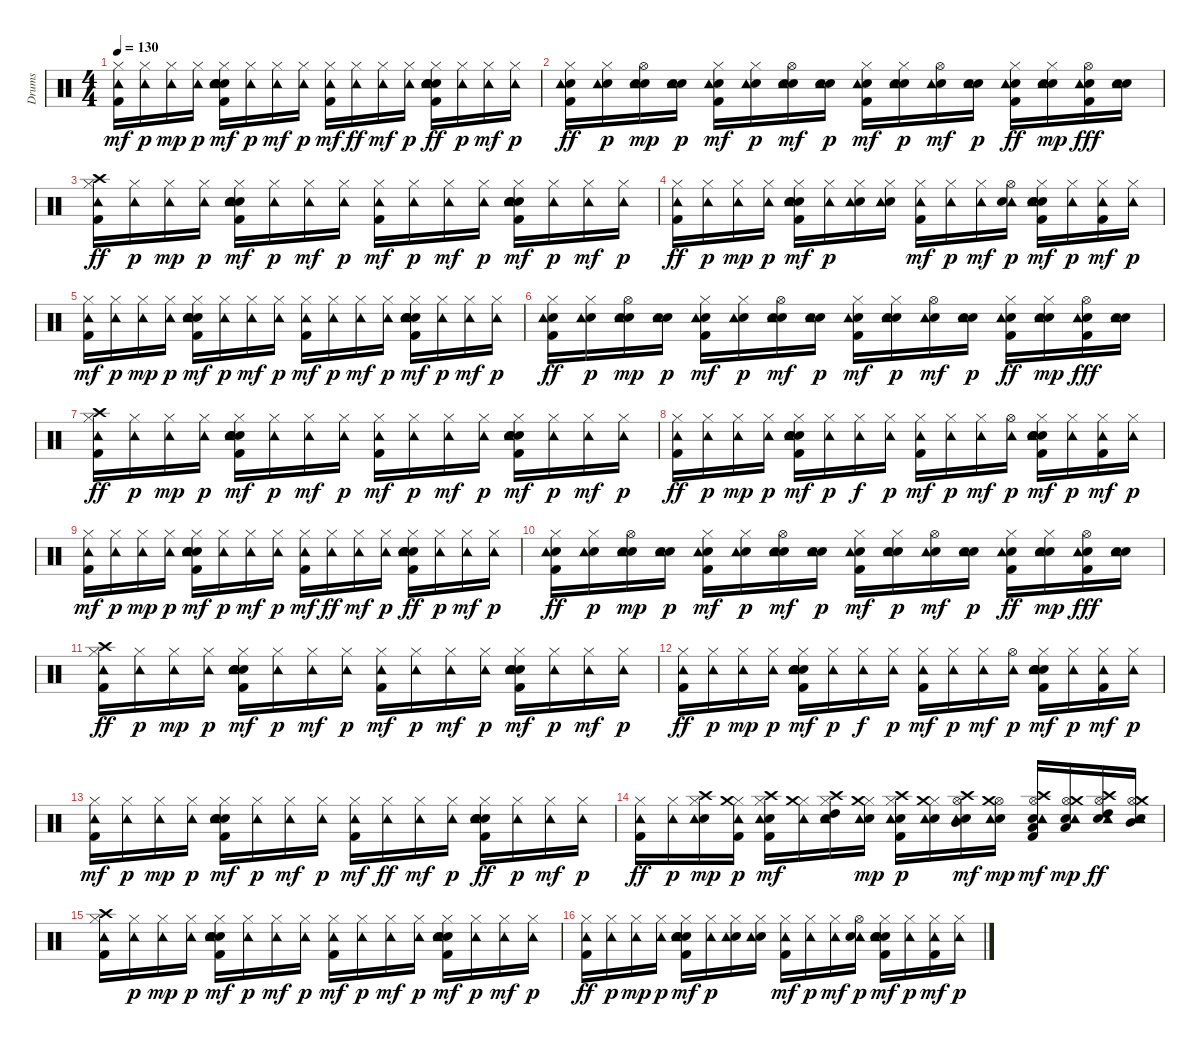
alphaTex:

\track ("Drums  " "Drums  ") {instrument percussion}
\staff {score}
\articulation defaults
\ts (4 4)
\tempo 130
\clef neutral
\ks c
("Kick (hit) 2" "Hi-Hat (closed)" "Tambourine (hit)").16{dy mf} ("Hi-Hat (closed)" "Tambourine (hit)").16{dy p} ("Hi-Hat (closed)" "Tambourine (hit)").16{dy mp} ("Hi-Hat (closed)" "Tambourine (hit)").16{dy p} ("Kick (hit) 2" "Snare (hit) 2" "Snare (hit) 2" "Electric Snare (hit)" "Hi-Hat (closed)" "Tambourine (hit)").16{dy mf} ("Hi-Hat (closed)" "Tambourine (hit)").16{dy p} ("Hi-Hat (closed)" "Tambourine (hit)").16{dy mf} ("Hi-Hat (closed)" "Tambourine (hit)").16{dy p} ("Kick (hit) 2" "Hi-Hat (closed)" "Tambourine (hit)").16{dy mf} ("Hi-Hat (closed)" "Tambourine (hit)").16{dy ff} ("Hi-Hat (closed)" "Tambourine (hit)").16{dy mf} ("Hi-Hat (closed)" "Tambourine (hit)").16{dy p} ("Kick (hit) 2" "Snare (hit) 2" "Snare (hit) 2" "Electric Snare (hit)" "Hi-Hat (closed)" "Tambourine (hit)").16{dy ff} ("Hi-Hat (closed)" "Tambourine (hit)").16{dy p} ("Hi-Hat (closed)" "Tambourine (hit)").16{dy mf} ("Hi-Hat (closed)" "Tambourine (hit)").16{dy p} |
("Kick (hit) 2" "Snare (hit) 2" "Hi-Hat (closed)" "Tambourine (hit)").16{dy ff} ("Snare (hit) 2" "Hi-Hat (closed)" "Tambourine (hit)").16{dy p} ("Snare (hit) 2" "Electric Snare (hit)" "Hi-Hat (open)" "Tambourine (hit)").16{dy mp} ("Snare (hit) 2" "Electric Snare (hit)" "Tambourine (hit)").16{dy p} ("Kick (hit) 2" "Snare (hit) 2" "Hi-Hat (closed)" "Tambourine (hit)").16{dy mf} ("Snare (hit) 2" "Hi-Hat (closed)" "Tambourine (hit)").16{dy p} ("Snare (hit) 2" "Electric Snare (hit)" "Hi-Hat (open)" "Tambourine (hit)").16{dy mf} ("Snare (hit) 2" "Electric Snare (hit)" "Tambourine (hit)").16{dy p} ("Kick (hit) 2" "Snare (hit) 2" "Hi-Hat (closed)" "Tambourine (hit)").16{dy mf} ("Snare (hit) 2" "Electric Snare (hit)" "Hi-Hat (closed)" "Tambourine (hit)").16{dy p} ("Snare (hit) 2" "Hi-Hat (open)" "Tambourine (hit)").16{dy mf} ("Snare (hit) 2" "Electric Snare (hit)" "Tambourine (hit)").16{dy p} ("Kick (hit) 2" "Snare (hit) 2" "Hi-Hat (closed)" "Tambourine (hit)").16{dy ff} ("Snare (hit) 2" "Electric Snare (hit)" "Hi-Hat (closed)" "Tambourine (hit)").16{dy mp} ("Kick (hit) 2" "Snare (hit) 2" "Hi-Hat (open)" "Tambourine (hit)").16{dy fff} ("Snare (hit) 2" "Electric Snare (hit)" "Tambourine (hit)").16 |
("Kick (hit) 2" "Hi-Hat (closed)" "Tambourine (hit)" "Crash high (hit)").16{dy ff} ("Hi-Hat (closed)" "Tambourine (hit)").16{dy p} ("Hi-Hat (closed)" "Tambourine (hit)").16{dy mp} ("Hi-Hat (closed)" "Tambourine (hit)").16{dy p} ("Kick (hit) 2" "Snare (hit) 2" "Snare (hit) 2" "Electric Snare (hit)" "Hi-Hat (closed)" "Tambourine (hit)").16{dy mf} ("Hi-Hat (closed)" "Tambourine (hit)").16{dy p} ("Hi-Hat (closed)" "Tambourine (hit)").16{dy mf} ("Hi-Hat (closed)" "Tambourine (hit)").16{dy p} ("Kick (hit) 2" "Hi-Hat (closed)" "Tambourine (hit)").16{dy mf} ("Hi-Hat (closed)" "Tambourine (hit)").16{dy p} ("Hi-Hat (closed)" "Tambourine (hit)").16{dy mf} ("Hi-Hat (closed)" "Tambourine (hit)").16{dy p} ("Kick (hit) 2" "Snare (hit) 2" "Snare (hit) 2" "Electric Snare (hit)" "Hi-Hat (closed)" "Tambourine (hit)").16{dy mf} ("Hi-Hat (closed)" "Tambourine (hit)").16{dy p} ("Hi-Hat (closed)" "Tambourine (hit)").16{dy mf} ("Hi-Hat (closed)" "Tambourine (hit)").16{dy p} |
("Kick (hit) 2" "Hi-Hat (closed)" "Tambourine (hit)").16{dy ff} ("Hi-Hat (closed)" "Tambourine (hit)").16{dy p} ("Hi-Hat (closed)" "Tambourine (hit)").16{dy mp} ("Hi-Hat (closed)" "Tambourine (hit)").16{dy p} ("Kick (hit) 2" "Snare (hit) 2" "Snare (hit) 2" "Electric Snare (hit)" "Hi-Hat (closed)" "Tambourine (hit)").16{dy mf} ("Hi-Hat (closed)" "Tambourine (hit)").16{dy p} ("Snare (hit) 2" "Hi-Hat (closed)" "Tambourine (hit)").16 ("Snare (hit) 2" "Hi-Hat (closed)" "Tambourine (hit)").16 ("Kick (hit) 2" "Hi-Hat (closed)" "Tambourine (hit)").16{dy mf} ("Hi-Hat (closed)" "Tambourine (hit)").16{dy p} ("Hi-Hat (closed)" "Tambourine (hit)").16{dy mf} ("Hi-Hat (open)" "Tambourine (hit)" "Snare (hit) 2").16{dy p} ("Kick (hit) 2" "Snare (hit) 2" "Snare (hit) 2" "Electric Snare (hit)" "Hi-Hat (closed)" "Tambourine (hit)").16{dy mf} ("Hi-Hat (closed)" "Tambourine (hit)").16{dy p} ("Kick (hit) 2" "Hi-Hat (closed)" "Tambourine (hit)").16{dy mf} ("Hi-Hat (closed)" "Tambourine (hit)").16{dy p} |
("Kick (hit) 2" "Hi-Hat (closed)" "Tambourine (hit)").16{dy mf} ("Hi-Hat (closed)" "Tambourine (hit)").16{dy p} ("Hi-Hat (closed)" "Tambourine (hit)").16{dy mp} ("Hi-Hat (closed)" "Tambourine (hit)").16{dy p} ("Kick (hit) 2" "Snare (hit) 2" "Snare (hit) 2" "Electric Snare (hit)" "Hi-Hat (closed)" "Tambourine (hit)").16{dy mf} ("Hi-Hat (closed)" "Tambourine (hit)").16{dy p} ("Hi-Hat (closed)" "Tambourine (hit)").16{dy mf} ("Hi-Hat (closed)" "Tambourine (hit)").16{dy p} ("Kick (hit) 2" "Hi-Hat (closed)" "Tambourine (hit)").16{dy mf} ("Hi-Hat (closed)" "Tambourine (hit)").16{dy p} ("Hi-Hat (closed)" "Tambourine (hit)").16{dy mf} ("Hi-Hat (closed)" "Tambourine (hit)").16{dy p} ("Kick (hit) 2" "Snare (hit) 2" "Snare (hit) 2" "Electric Snare (hit)" "Hi-Hat (closed)" "Tambourine (hit)").16{dy mf} ("Hi-Hat (closed)" "Tambourine (hit)").16{dy p} ("Hi-Hat (closed)" "Tambourine (hit)").16{dy mf} ("Hi-Hat (closed)" "Tambourine (hit)").16{dy p} |
("Kick (hit) 2" "Snare (hit) 2" "Hi-Hat (closed)" "Tambourine (hit)").16{dy ff} ("Snare (hit) 2" "Hi-Hat (closed)" "Tambourine (hit)").16{dy p} ("Snare (hit) 2" "Electric Snare (hit)" "Hi-Hat (open)" "Tambourine (hit)").16{dy mp} ("Snare (hit) 2" "Electric Snare (hit)" "Tambourine (hit)").16{dy p} ("Kick (hit) 2" "Snare (hit) 2" "Hi-Hat (closed)" "Tambourine (hit)").16{dy mf} ("Snare (hit) 2" "Hi-Hat (closed)" "Tambourine (hit)").16{dy p} ("Snare (hit) 2" "Electric Snare (hit)" "Hi-Hat (open)" "Tambourine (hit)").16{dy mf} ("Snare (hit) 2" "Electric Snare (hit)" "Tambourine (hit)").16{dy p} ("Kick (hit) 2" "Snare (hit) 2" "Hi-Hat (closed)" "Tambourine (hit)").16{dy mf} ("Snare (hit) 2" "Electric Snare (hit)" "Hi-Hat (closed)" "Tambourine (hit)").16{dy p} ("Snare (hit) 2" "Hi-Hat (open)" "Tambourine (hit)").16{dy mf} ("Snare (hit) 2" "Electric Snare (hit)" "Tambourine (hit)").16{dy p} ("Kick (hit) 2" "Snare (hit) 2" "Hi-Hat (closed)" "Tambourine (hit)").16{dy ff} ("Snare (hit) 2" "Electric Snare (hit)" "Hi-Hat (closed)" "Tambourine (hit)").16{dy mp} ("Kick (hit) 2" "Snare (hit) 2" "Hi-Hat (open)" "Tambourine (hit)").16{dy fff} ("Snare (hit) 2" "Electric Snare (hit)" "Tambourine (hit)").16 |
("Kick (hit) 2" "Hi-Hat (closed)" "Tambourine (hit)" "Crash high (hit)").16{dy ff} ("Hi-Hat (closed)" "Tambourine (hit)").16{dy p} ("Hi-Hat (closed)" "Tambourine (hit)").16{dy mp} ("Hi-Hat (closed)" "Tambourine (hit)").16{dy p} ("Kick (hit) 2" "Snare (hit) 2" "Snare (hit) 2" "Electric Snare (hit)" "Hi-Hat (closed)" "Tambourine (hit)").16{dy mf} ("Hi-Hat (closed)" "Tambourine (hit)").16{dy p} ("Hi-Hat (closed)" "Tambourine (hit)").16{dy mf} ("Hi-Hat (closed)" "Tambourine (hit)").16{dy p} ("Kick (hit) 2" "Hi-Hat (closed)" "Tambourine (hit)").16{dy mf} ("Hi-Hat (closed)" "Tambourine (hit)").16{dy p} ("Hi-Hat (closed)" "Tambourine (hit)").16{dy mf} ("Hi-Hat (closed)" "Tambourine (hit)").16{dy p} ("Kick (hit) 2" "Snare (hit) 2" "Snare (hit) 2" "Electric Snare (hit)" "Hi-Hat (closed)" "Tambourine (hit)").16{dy mf} ("Hi-Hat (closed)" "Tambourine (hit)").16{dy p} ("Hi-Hat (closed)" "Tambourine (hit)").16{dy mf} ("Hi-Hat (closed)" "Tambourine (hit)").16{dy p} |
("Kick (hit) 2" "Hi-Hat (closed)" "Tambourine (hit)").16{dy ff} ("Hi-Hat (closed)" "Tambourine (hit)").16{dy p} ("Hi-Hat (closed)" "Tambourine (hit)").16{dy mp} ("Hi-Hat (closed)" "Tambourine (hit)").16{dy p} ("Kick (hit) 2" "Snare (hit) 2" "Snare (hit) 2" "Electric Snare (hit)" "Hi-Hat (closed)" "Tambourine (hit)").16{dy mf} ("Hi-Hat (closed)" "Tambourine (hit)").16{dy p} ("Hi-Hat (closed)" "Tambourine (hit)").16{dy f} ("Hi-Hat (closed)" "Tambourine (hit)").16{dy p} ("Kick (hit) 2" "Hi-Hat (closed)" "Tambourine (hit)").16{dy mf} ("Hi-Hat (closed)" "Tambourine (hit)").16{dy p} ("Hi-Hat (closed)" "Tambourine (hit)").16{dy mf} ("Hi-Hat (open)" "Tambourine (hit)").16{dy p} ("Kick (hit) 2" "Snare (hit) 2" "Snare (hit) 2" "Electric Snare (hit)" "Hi-Hat (closed)" "Tambourine (hit)").16{dy mf} ("Hi-Hat (closed)" "Tambourine (hit)").16{dy p} ("Kick (hit) 2" "Hi-Hat (closed)" "Tambourine (hit)").16{dy mf} ("Hi-Hat (closed)" "Tambourine (hit)").16{dy p} |
("Kick (hit) 2" "Hi-Hat (closed)" "Tambourine (hit)").16{dy mf} ("Hi-Hat (closed)" "Tambourine (hit)").16{dy p} ("Hi-Hat (closed)" "Tambourine (hit)").16{dy mp} ("Hi-Hat (closed)" "Tambourine (hit)").16{dy p} ("Kick (hit) 2" "Snare (hit) 2" "Snare (hit) 2" "Electric Snare (hit)" "Hi-Hat (closed)" "Tambourine (hit)").16{dy mf} ("Hi-Hat (closed)" "Tambourine (hit)").16{dy p} ("Hi-Hat (closed)" "Tambourine (hit)").16{dy mf} ("Hi-Hat (closed)" "Tambourine (hit)").16{dy p} ("Kick (hit) 2" "Hi-Hat (closed)" "Tambourine (hit)").16{dy mf} ("Hi-Hat (closed)" "Tambourine (hit)").16{dy ff} ("Hi-Hat (closed)" "Tambourine (hit)").16{dy mf} ("Hi-Hat (closed)" "Tambourine (hit)").16{dy p} ("Kick (hit) 2" "Snare (hit) 2" "Snare (hit) 2" "Electric Snare (hit)" "Hi-Hat (closed)" "Tambourine (hit)").16{dy ff} ("Hi-Hat (closed)" "Tambourine (hit)").16{dy p} ("Hi-Hat (closed)" "Tambourine (hit)").16{dy mf} ("Hi-Hat (closed)" "Tambourine (hit)").16{dy p} |
("Kick (hit) 2" "Snare (hit) 2" "Hi-Hat (closed)" "Tambourine (hit)").16{dy ff} ("Snare (hit) 2" "Hi-Hat (closed)" "Tambourine (hit)").16{dy p} ("Snare (hit) 2" "Electric Snare (hit)" "Hi-Hat (open)" "Tambourine (hit)").16{dy mp} ("Snare (hit) 2" "Electric Snare (hit)" "Tambourine (hit)").16{dy p} ("Kick (hit) 2" "Snare (hit) 2" "Hi-Hat (closed)" "Tambourine (hit)").16{dy mf} ("Snare (hit) 2" "Hi-Hat (closed)" "Tambourine (hit)").16{dy p} ("Snare (hit) 2" "Electric Snare (hit)" "Hi-Hat (open)" "Tambourine (hit)").16{dy mf} ("Snare (hit) 2" "Electric Snare (hit)" "Tambourine (hit)").16{dy p} ("Kick (hit) 2" "Snare (hit) 2" "Hi-Hat (closed)" "Tambourine (hit)").16{dy mf} ("Snare (hit) 2" "Electric Snare (hit)" "Hi-Hat (closed)" "Tambourine (hit)").16{dy p} ("Snare (hit) 2" "Hi-Hat (open)" "Tambourine (hit)").16{dy mf} ("Snare (hit) 2" "Electric Snare (hit)" "Tambourine (hit)").16{dy p} ("Kick (hit) 2" "Snare (hit) 2" "Hi-Hat (closed)" "Tambourine (hit)").16{dy ff} ("Snare (hit) 2" "Electric Snare (hit)" "Hi-Hat (closed)" "Tambourine (hit)").16{dy mp} ("Kick (hit) 2" "Snare (hit) 2" "Hi-Hat (open)" "Tambourine (hit)").16{dy fff} ("Snare (hit) 2" "Electric Snare (hit)" "Tambourine (hit)").16 |
("Kick (hit) 2" "Hi-Hat (closed)" "Tambourine (hit)" "Crash high (hit)").16{dy ff} ("Hi-Hat (closed)" "Tambourine (hit)").16{dy p} ("Hi-Hat (closed)" "Tambourine (hit)").16{dy mp} ("Hi-Hat (closed)" "Tambourine (hit)").16{dy p} ("Kick (hit) 2" "Snare (hit) 2" "Snare (hit) 2" "Electric Snare (hit)" "Hi-Hat (closed)" "Tambourine (hit)").16{dy mf} ("Hi-Hat (closed)" "Tambourine (hit)").16{dy p} ("Hi-Hat (closed)" "Tambourine (hit)").16{dy mf} ("Hi-Hat (closed)" "Tambourine (hit)").16{dy p} ("Kick (hit) 2" "Hi-Hat (closed)" "Tambourine (hit)").16{dy mf} ("Hi-Hat (closed)" "Tambourine (hit)").16{dy p} ("Hi-Hat (closed)" "Tambourine (hit)").16{dy mf} ("Hi-Hat (closed)" "Tambourine (hit)").16{dy p} ("Kick (hit) 2" "Snare (hit) 2" "Snare (hit) 2" "Electric Snare (hit)" "Hi-Hat (closed)" "Tambourine (hit)").16{dy mf} ("Hi-Hat (closed)" "Tambourine (hit)").16{dy p} ("Hi-Hat (closed)" "Tambourine (hit)").16{dy mf} ("Hi-Hat (closed)" "Tambourine (hit)").16{dy p} |
("Kick (hit) 2" "Hi-Hat (closed)" "Tambourine (hit)").16{dy ff} ("Hi-Hat (closed)" "Tambourine (hit)").16{dy p} ("Hi-Hat (closed)" "Tambourine (hit)").16{dy mp} ("Hi-Hat (closed)" "Tambourine (hit)").16{dy p} ("Kick (hit) 2" "Snare (hit) 2" "Snare (hit) 2" "Electric Snare (hit)" "Hi-Hat (closed)" "Tambourine (hit)").16{dy mf} ("Hi-Hat (closed)" "Tambourine (hit)").16{dy p} ("Hi-Hat (closed)" "Tambourine (hit)").16{dy f} ("Hi-Hat (closed)" "Tambourine (hit)").16{dy p} ("Kick (hit) 2" "Hi-Hat (closed)" "Tambourine (hit)").16{dy mf} ("Hi-Hat (closed)" "Tambourine (hit)").16{dy p} ("Hi-Hat (closed)" "Tambourine (hit)").16{dy mf} ("Hi-Hat (open)" "Tambourine (hit)").16{dy p} ("Kick (hit) 2" "Snare (hit) 2" "Snare (hit) 2" "Electric Snare (hit)" "Hi-Hat (closed)" "Tambourine (hit)").16{dy mf} ("Hi-Hat (closed)" "Tambourine (hit)").16{dy p} ("Kick (hit) 2" "Hi-Hat (closed)" "Tambourine (hit)").16{dy mf} ("Hi-Hat (closed)" "Tambourine (hit)").16{dy p} |
("Kick (hit) 2" "Hi-Hat (closed)" "Tambourine (hit)").16{dy mf} ("Hi-Hat (closed)" "Tambourine (hit)").16{dy p} ("Hi-Hat (closed)" "Tambourine (hit)").16{dy mp} ("Hi-Hat (closed)" "Tambourine (hit)").16{dy p} ("Kick (hit) 2" "Snare (hit) 2" "Snare (hit) 2" "Electric Snare (hit)" "Hi-Hat (closed)" "Tambourine (hit)").16{dy mf} ("Hi-Hat (closed)" "Tambourine (hit)").16{dy p} ("Hi-Hat (closed)" "Tambourine (hit)").16{dy mf} ("Hi-Hat (closed)" "Tambourine (hit)").16{dy p} ("Kick (hit) 2" "Hi-Hat (closed)" "Tambourine (hit)").16{dy mf} ("Hi-Hat (closed)" "Tambourine (hit)").16{dy ff} ("Hi-Hat (closed)" "Tambourine (hit)").16{dy mf} ("Hi-Hat (closed)" "Tambourine (hit)").16{dy p} ("Kick (hit) 2" "Snare (hit) 2" "Snare (hit) 2" "Electric Snare (hit)" "Hi-Hat (closed)" "Tambourine (hit)").16{dy ff} ("Hi-Hat (closed)" "Tambourine (hit)").16{dy p} ("Hi-Hat (closed)" "Tambourine (hit)").16{dy mf} ("Hi-Hat (closed)" "Tambourine (hit)").16{dy p} |
("Kick (hit) 2" "Hi-Hat (closed)" "Tambourine (hit)").16{dy ff} ("Hi-Hat (closed)" "Tambourine (hit)").16{dy p} ("Snare (hit) 2" "Hi-Hat (closed)" "Tambourine (hit)" "Crash high (hit)").16{dy mp} ("Kick (hit) 2" "Hi-Hat (closed)" "Tambourine (hit)" "Crash medium (hit)").16{dy p} ("Kick (hit) 2" "Snare (hit) 2" "Hi-Hat (closed)" "Tambourine (hit)" "Crash high (hit)").16{dy mf} ("Hi-Hat (closed)" "Tambourine (hit)" "Crash medium (hit)").16 ("Snare (hit) 2" "Hi-Hat (closed)" "High Tom (hit)" "Tambourine (hit)" "Crash high (hit)").16 ("Snare (hit) 2" "Hi-Hat (closed)" "Tambourine (hit)" "Crash medium (hit)").16{dy mp} ("Kick (hit) 2" "Snare (hit) 2" "Hi-Hat (closed)" "Tambourine (hit)" "Crash high (hit)").16{dy p} ("Snare (hit) 2" "Hi-Hat (closed)" "Tambourine (hit)" "Crash medium (hit)").16 ("Snare (hit) 2" "Hi-Hat (open)" "Mid Tom (hit)" "Tambourine (hit)" "Crash high (hit)").16{dy mf} ("Snare (hit) 2" "Hi-Hat (open)" "Tambourine (hit)" "Crash medium (hit)").16{dy mp} ("Kick (hit) 2" "Snare (hit) 2" "Hi-Hat (open)" "Low Floor Tom (hit)" "Tambourine (hit)" "Crash high (hit)").16{dy mf} ("Snare (hit) 2" "Hi-Hat (open)" "Low Floor Tom (hit)" "Tambourine (hit)" "Crash medium (hit)").16{dy mp} ("Snare (hit) 2" "Hi-Hat (open)" "High Tom (hit)" "Tambourine (hit)" "Crash high (hit)").16{dy ff} ("Snare (hit) 2" "Hi-Hat (open)" "Mid Tom (hit)" "Tambourine (hit)" "Crash medium (hit)").16 |
("Kick (hit) 2" "Hi-Hat (closed)" "Tambourine (hit)" "Crash high (hit)").16 ("Hi-Hat (closed)" "Tambourine (hit)").16{dy p} ("Hi-Hat (closed)" "Tambourine (hit)").16{dy mp} ("Hi-Hat (closed)" "Tambourine (hit)").16{dy p} ("Kick (hit) 2" "Snare (hit) 2" "Snare (hit) 2" "Electric Snare (hit)" "Hi-Hat (closed)" "Tambourine (hit)").16{dy mf} ("Hi-Hat (closed)" "Tambourine (hit)").16{dy p} ("Hi-Hat (closed)" "Tambourine (hit)").16{dy mf} ("Hi-Hat (closed)" "Tambourine (hit)").16{dy p} ("Kick (hit) 2" "Hi-Hat (closed)" "Tambourine (hit)").16{dy mf} ("Hi-Hat (closed)" "Tambourine (hit)").16{dy p} ("Hi-Hat (closed)" "Tambourine (hit)").16{dy mf} ("Hi-Hat (closed)" "Tambourine (hit)").16{dy p} ("Kick (hit) 2" "Snare (hit) 2" "Snare (hit) 2" "Electric Snare (hit)" "Hi-Hat (closed)" "Tambourine (hit)").16{dy mf} ("Hi-Hat (closed)" "Tambourine (hit)").16{dy p} ("Hi-Hat (closed)" "Tambourine (hit)").16{dy mf} ("Hi-Hat (closed)" "Tambourine (hit)").16{dy p} |
("Kick (hit) 2" "Hi-Hat (closed)" "Tambourine (hit)").16{dy ff} ("Hi-Hat (closed)" "Tambourine (hit)").16{dy p} ("Hi-Hat (closed)" "Tambourine (hit)").16{dy mp} ("Hi-Hat (closed)" "Tambourine (hit)").16{dy p} ("Kick (hit) 2" "Snare (hit) 2" "Snare (hit) 2" "Electric Snare (hit)" "Hi-Hat (closed)" "Tambourine (hit)").16{dy mf} ("Hi-Hat (closed)" "Tambourine (hit)").16{dy p} ("Snare (hit) 2" "Hi-Hat (closed)" "Tambourine (hit)").16 ("Snare (hit) 2" "Hi-Hat (closed)" "Tambourine (hit)").16 ("Kick (hit) 2" "Hi-Hat (closed)" "Tambourine (hit)").16{dy mf} ("Hi-Hat (closed)" "Tambourine (hit)").16{dy p} ("Hi-Hat (closed)" "Tambourine (hit)").16{dy mf} ("Hi-Hat (open)" "Tambourine (hit)" "Snare (hit) 2").16{dy p} ("Kick (hit) 2" "Snare (hit) 2" "Snare (hit) 2" "Electric Snare (hit)" "Hi-Hat (closed)" "Tambourine (hit)").16{dy mf} ("Hi-Hat (closed)" "Tambourine (hit)").16{dy p} ("Kick (hit) 2" "Hi-Hat (closed)" "Tambourine (hit)").16{dy mf} ("Hi-Hat (closed)" "Tambourine (hit)").16{dy p}
